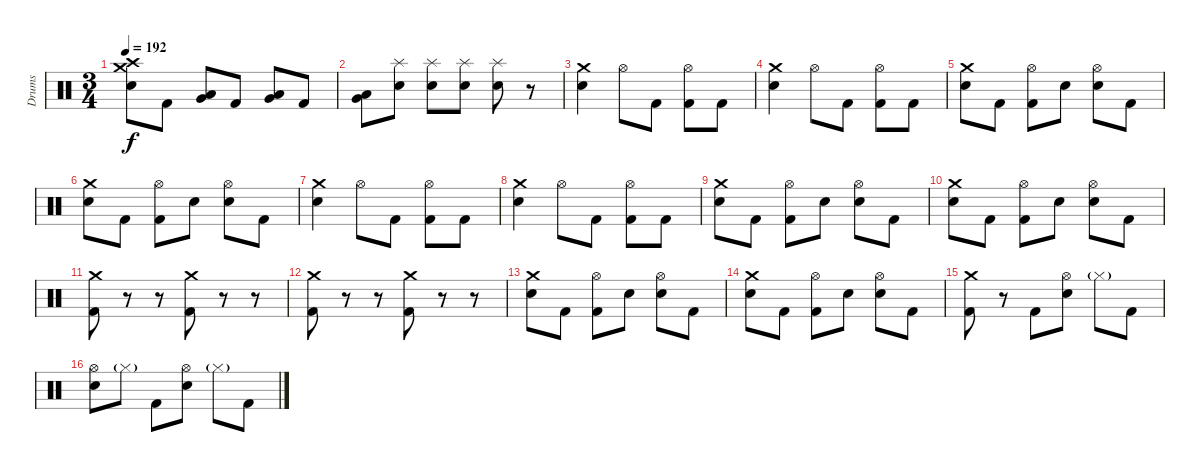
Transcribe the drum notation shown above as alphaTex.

\track ("Drums" "Drums") {instrument percussion}
\staff {score}
\articulation defaults
\ts (3 4)
\tempo 192
\clef neutral
\ks c
("Crash medium (hit)" "Crash high (hit)" "Electric Snare (hit)").8{dy f} "Kick (hit) 2".8 ("Low Tom (hit)" "Very Low Tom (hit)").8 "Kick (hit) 2".8 ("Low Tom (hit)" "Very Low Tom (hit)").8 "Kick (hit) 2".8 |
("Low Tom (hit)" "Very Low Tom (hit)").8 ("Splash (hit)" "Electric Snare (hit)").8 ("Splash (hit)" "Electric Snare (hit)").8 ("Splash (hit)" "Electric Snare (hit)").8 ("Splash (hit)" "Electric Snare (hit)").8 r.8 |
("Crash medium (hit)" "Electric Snare (hit)").4 "Hi-Hat (open)".8 "Kick (hit) 2".8 ("Hi-Hat (open)" "Kick (hit) 2").8 "Kick (hit) 2".8 |
("Crash medium (hit)" "Electric Snare (hit)").4 "Hi-Hat (open)".8 "Kick (hit) 2".8 ("Hi-Hat (open)" "Kick (hit) 2").8 "Kick (hit) 2".8 |
("Crash medium (hit)" "Electric Snare (hit)").8 "Kick (hit) 2".8 ("Hi-Hat (open)" "Kick (hit) 2").8 "Electric Snare (hit)".8 ("Hi-Hat (open)" "Electric Snare (hit)").8 "Kick (hit) 2".8 |
("Crash medium (hit)" "Electric Snare (hit)").8 "Kick (hit) 2".8 ("Hi-Hat (open)" "Kick (hit) 2").8 "Electric Snare (hit)".8 ("Hi-Hat (open)" "Electric Snare (hit)").8 "Kick (hit) 2".8 |
("Crash medium (hit)" "Electric Snare (hit)").4 "Hi-Hat (open)".8 "Kick (hit) 2".8 ("Hi-Hat (open)" "Kick (hit) 2").8 "Kick (hit) 2".8 |
("Crash medium (hit)" "Electric Snare (hit)").4 "Hi-Hat (open)".8 "Kick (hit) 2".8 ("Hi-Hat (open)" "Kick (hit) 2").8 "Kick (hit) 2".8 |
("Crash medium (hit)" "Electric Snare (hit)").8 "Kick (hit) 2".8 ("Hi-Hat (open)" "Kick (hit) 2").8 "Electric Snare (hit)".8 ("Hi-Hat (open)" "Electric Snare (hit)").8 "Kick (hit) 2".8 |
("Crash medium (hit)" "Electric Snare (hit)").8 "Kick (hit) 2".8 ("Hi-Hat (open)" "Kick (hit) 2").8 "Electric Snare (hit)".8 ("Hi-Hat (open)" "Electric Snare (hit)").8 "Kick (hit) 2".8 |
("Crash medium (hit)" "Kick (hit) 2").8 r.8 r.8 ("Crash medium (hit)" "Kick (hit) 2").8 r.8 r.8 |
("Crash medium (hit)" "Kick (hit) 2").8 r.8 r.8 ("Crash medium (hit)" "Kick (hit) 2").8 r.8 r.8 |
("Crash medium (hit)" "Electric Snare (hit)").8 "Kick (hit) 2".8 ("Hi-Hat (open)" "Kick (hit) 2").8 "Electric Snare (hit)".8 ("Hi-Hat (open)" "Electric Snare (hit)").8 "Kick (hit) 2".8 |
("Crash medium (hit)" "Electric Snare (hit)").8 "Kick (hit) 2".8 ("Hi-Hat (open)" "Kick (hit) 2").8 "Electric Snare (hit)".8 ("Hi-Hat (open)" "Electric Snare (hit)").8 "Kick (hit) 2".8 |
("Crash medium (hit)" "Kick (hit) 2").8 r.8 "Kick (hit) 2".8 ("Hi-Hat (open)" "Electric Snare (hit)").8 "Hi-Hat (closed)"{g}.8 "Kick (hit) 2".8 |
("Hi-Hat (open)" "Electric Snare (hit)").8 "Hi-Hat (closed)"{g}.8 "Kick (hit) 2".8 ("Hi-Hat (open)" "Electric Snare (hit)").8 "Hi-Hat (closed)"{g}.8 "Kick (hit) 2".8
